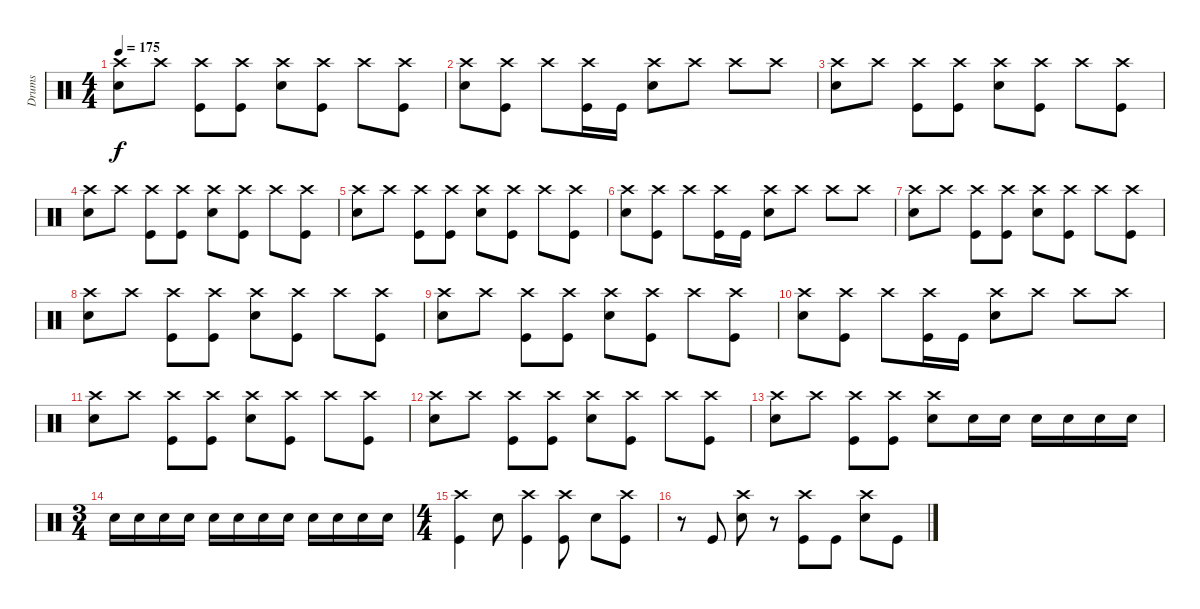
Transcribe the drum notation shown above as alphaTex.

\track ("Drums" "Drums") {instrument percussion}
\staff {score}
\articulation defaults
\ts (4 4)
\tempo 175
\clef neutral
\ks c
("Crash high (hit)" "Snare (hit) 2").8{dy f} "Crash high (hit)".8 ("Crash high (hit)" "Kick (hit)").8 ("Crash high (hit)" "Kick (hit)").8 ("Crash high (hit)" "Snare (hit) 2").8 ("Crash high (hit)" "Kick (hit)").8 "Crash high (hit)".8 ("Crash high (hit)" "Kick (hit)").8 |
("Crash high (hit)" "Snare (hit) 2").8 ("Crash high (hit)" "Kick (hit)").8 "Crash high (hit)".8 ("Crash high (hit)" "Kick (hit)").16 "Kick (hit)".16 ("Crash high (hit)" "Snare (hit) 2").8 "Crash high (hit)".8 "Crash high (hit)".8 "Crash high (hit)".8 |
("Crash high (hit)" "Snare (hit) 2").8 "Crash high (hit)".8 ("Crash high (hit)" "Kick (hit)").8 ("Crash high (hit)" "Kick (hit)").8 ("Crash high (hit)" "Snare (hit) 2").8 ("Crash high (hit)" "Kick (hit)").8 "Crash high (hit)".8 ("Crash high (hit)" "Kick (hit)").8 |
("Crash high (hit)" "Snare (hit) 2").8 "Crash high (hit)".8 ("Crash high (hit)" "Kick (hit)").8 ("Crash high (hit)" "Kick (hit)").8 ("Crash high (hit)" "Snare (hit) 2").8 ("Crash high (hit)" "Kick (hit)").8 "Crash high (hit)".8 ("Crash high (hit)" "Kick (hit)").8 |
("Crash high (hit)" "Snare (hit) 2").8 "Crash high (hit)".8 ("Crash high (hit)" "Kick (hit)").8 ("Crash high (hit)" "Kick (hit)").8 ("Crash high (hit)" "Snare (hit) 2").8 ("Crash high (hit)" "Kick (hit)").8 "Crash high (hit)".8 ("Crash high (hit)" "Kick (hit)").8 |
("Crash high (hit)" "Snare (hit) 2").8 ("Crash high (hit)" "Kick (hit)").8 "Crash high (hit)".8 ("Crash high (hit)" "Kick (hit)").16 "Kick (hit)".16 ("Crash high (hit)" "Snare (hit) 2").8 "Crash high (hit)".8 "Crash high (hit)".8 "Crash high (hit)".8 |
("Crash high (hit)" "Snare (hit) 2").8 "Crash high (hit)".8 ("Crash high (hit)" "Kick (hit)").8 ("Crash high (hit)" "Kick (hit)").8 ("Crash high (hit)" "Snare (hit) 2").8 ("Crash high (hit)" "Kick (hit)").8 "Crash high (hit)".8 ("Crash high (hit)" "Kick (hit)").8 |
("Crash high (hit)" "Snare (hit) 2").8 "Crash high (hit)".8 ("Crash high (hit)" "Kick (hit)").8 ("Crash high (hit)" "Kick (hit)").8 ("Crash high (hit)" "Snare (hit) 2").8 ("Crash high (hit)" "Kick (hit)").8 "Crash high (hit)".8 ("Crash high (hit)" "Kick (hit)").8 |
("Crash high (hit)" "Snare (hit) 2").8 "Crash high (hit)".8 ("Crash high (hit)" "Kick (hit)").8 ("Crash high (hit)" "Kick (hit)").8 ("Crash high (hit)" "Snare (hit) 2").8 ("Crash high (hit)" "Kick (hit)").8 "Crash high (hit)".8 ("Crash high (hit)" "Kick (hit)").8 |
("Crash high (hit)" "Snare (hit) 2").8 ("Crash high (hit)" "Kick (hit)").8 "Crash high (hit)".8 ("Crash high (hit)" "Kick (hit)").16 "Kick (hit)".16 ("Crash high (hit)" "Snare (hit) 2").8 "Crash high (hit)".8 "Crash high (hit)".8 "Crash high (hit)".8 |
("Crash high (hit)" "Snare (hit) 2").8 "Crash high (hit)".8 ("Crash high (hit)" "Kick (hit)").8 ("Crash high (hit)" "Kick (hit)").8 ("Crash high (hit)" "Snare (hit) 2").8 ("Crash high (hit)" "Kick (hit)").8 "Crash high (hit)".8 ("Crash high (hit)" "Kick (hit)").8 |
("Crash high (hit)" "Snare (hit) 2").8 "Crash high (hit)".8 ("Crash high (hit)" "Kick (hit)").8 ("Crash high (hit)" "Kick (hit)").8 ("Crash high (hit)" "Snare (hit) 2").8 ("Crash high (hit)" "Kick (hit)").8 "Crash high (hit)".8 ("Crash high (hit)" "Kick (hit)").8 |
("Crash high (hit)" "Snare (hit) 2").8 "Crash high (hit)".8 ("Crash high (hit)" "Kick (hit)").8 ("Crash high (hit)" "Kick (hit)").8 ("Crash high (hit)" "Snare (hit) 2").8 "Snare (hit) 2".16 "Snare (hit) 2".16 "Snare (hit) 2".16 "Snare (hit) 2".16 "Snare (hit) 2".16 "Snare (hit) 2".16 |
\ts (3 4)
"Snare (hit) 2".16 "Snare (hit) 2".16 "Snare (hit) 2".16 "Snare (hit) 2".16 "Snare (hit) 2".16 "Snare (hit) 2".16 "Snare (hit) 2".16 "Snare (hit) 2".16 "Snare (hit) 2".16 "Snare (hit) 2".16 "Snare (hit) 2".16 "Snare (hit) 2".16 |
\ts (4 4)
("Crash high (hit)" "Kick (hit)").4 "Snare (hit) 2".8 ("Crash high (hit)" "Kick (hit)").4 ("Crash high (hit)" "Kick (hit)").8 "Snare (hit) 2".8 ("Crash high (hit)" "Kick (hit)").8 |
r.8 "Kick (hit)".8 ("Crash high (hit)" "Snare (hit) 2").8 r.8 ("Crash high (hit)" "Kick (hit)").8 "Kick (hit)".8 ("Crash high (hit)" "Snare (hit) 2").8 "Kick (hit)".8
